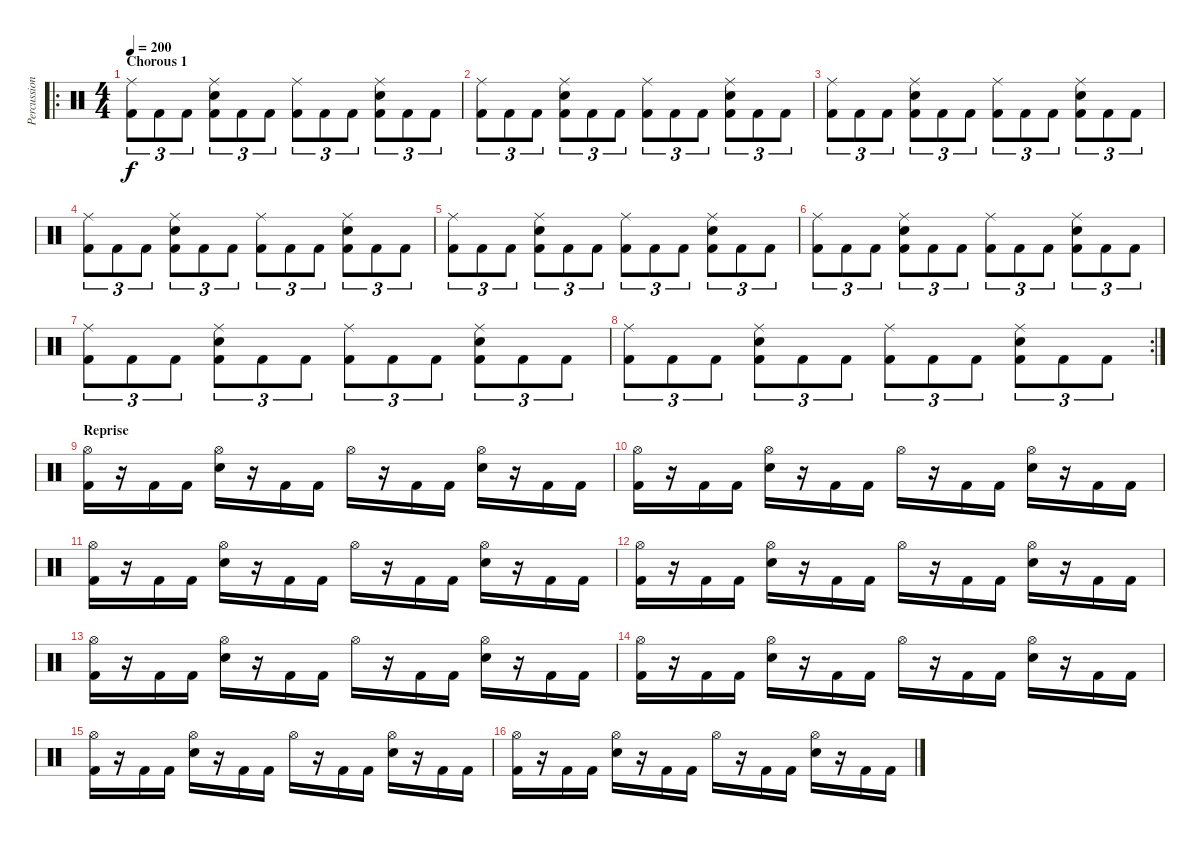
\track ("Percussion" "Percussion") {instrument percussion}
\staff {score}
\articulation defaults
\ro
\ts (4 4)
\section ("" "Chorous 1")
\tempo 200
\clef neutral
\ks c
("Ride (middle)" "Kick (hit) 2").8{tu (3 2) dy f} "Kick (hit) 2".8{tu (3 2)} "Kick (hit) 2".8{tu (3 2)} ("Ride (middle)" "Electric Snare (hit)" "Kick (hit) 2").8{tu (3 2)} "Kick (hit) 2".8{tu (3 2)} "Kick (hit) 2".8{tu (3 2)} ("Ride (middle)" "Kick (hit) 2").8{tu (3 2)} "Kick (hit) 2".8{tu (3 2)} "Kick (hit) 2".8{tu (3 2)} ("Ride (middle)" "Electric Snare (hit)" "Kick (hit) 2").8{tu (3 2)} "Kick (hit) 2".8{tu (3 2)} "Kick (hit) 2".8{tu (3 2)} |
("Ride (middle)" "Kick (hit) 2").8{tu (3 2)} "Kick (hit) 2".8{tu (3 2)} "Kick (hit) 2".8{tu (3 2)} ("Ride (middle)" "Electric Snare (hit)" "Kick (hit) 2").8{tu (3 2)} "Kick (hit) 2".8{tu (3 2)} "Kick (hit) 2".8{tu (3 2)} ("Ride (middle)" "Kick (hit) 2").8{tu (3 2)} "Kick (hit) 2".8{tu (3 2)} "Kick (hit) 2".8{tu (3 2)} ("Ride (middle)" "Electric Snare (hit)" "Kick (hit) 2").8{tu (3 2)} "Kick (hit) 2".8{tu (3 2)} "Kick (hit) 2".8{tu (3 2)} |
("Ride (middle)" "Kick (hit) 2").8{tu (3 2)} "Kick (hit) 2".8{tu (3 2)} "Kick (hit) 2".8{tu (3 2)} ("Ride (middle)" "Electric Snare (hit)" "Kick (hit) 2").8{tu (3 2)} "Kick (hit) 2".8{tu (3 2)} "Kick (hit) 2".8{tu (3 2)} ("Ride (middle)" "Kick (hit) 2").8{tu (3 2)} "Kick (hit) 2".8{tu (3 2)} "Kick (hit) 2".8{tu (3 2)} ("Ride (middle)" "Electric Snare (hit)" "Kick (hit) 2").8{tu (3 2)} "Kick (hit) 2".8{tu (3 2)} "Kick (hit) 2".8{tu (3 2)} |
("Ride (middle)" "Kick (hit) 2").8{tu (3 2)} "Kick (hit) 2".8{tu (3 2)} "Kick (hit) 2".8{tu (3 2)} ("Ride (middle)" "Electric Snare (hit)" "Kick (hit) 2").8{tu (3 2)} "Kick (hit) 2".8{tu (3 2)} "Kick (hit) 2".8{tu (3 2)} ("Ride (middle)" "Kick (hit) 2").8{tu (3 2)} "Kick (hit) 2".8{tu (3 2)} "Kick (hit) 2".8{tu (3 2)} ("Ride (middle)" "Electric Snare (hit)" "Kick (hit) 2").8{tu (3 2)} "Kick (hit) 2".8{tu (3 2)} "Kick (hit) 2".8{tu (3 2)} |
("Ride (middle)" "Kick (hit) 2").8{tu (3 2)} "Kick (hit) 2".8{tu (3 2)} "Kick (hit) 2".8{tu (3 2)} ("Ride (middle)" "Electric Snare (hit)" "Kick (hit) 2").8{tu (3 2)} "Kick (hit) 2".8{tu (3 2)} "Kick (hit) 2".8{tu (3 2)} ("Ride (middle)" "Kick (hit) 2").8{tu (3 2)} "Kick (hit) 2".8{tu (3 2)} "Kick (hit) 2".8{tu (3 2)} ("Ride (middle)" "Electric Snare (hit)" "Kick (hit) 2").8{tu (3 2)} "Kick (hit) 2".8{tu (3 2)} "Kick (hit) 2".8{tu (3 2)} |
("Ride (middle)" "Kick (hit) 2").8{tu (3 2)} "Kick (hit) 2".8{tu (3 2)} "Kick (hit) 2".8{tu (3 2)} ("Ride (middle)" "Electric Snare (hit)" "Kick (hit) 2").8{tu (3 2)} "Kick (hit) 2".8{tu (3 2)} "Kick (hit) 2".8{tu (3 2)} ("Ride (middle)" "Kick (hit) 2").8{tu (3 2)} "Kick (hit) 2".8{tu (3 2)} "Kick (hit) 2".8{tu (3 2)} ("Ride (middle)" "Electric Snare (hit)" "Kick (hit) 2").8{tu (3 2)} "Kick (hit) 2".8{tu (3 2)} "Kick (hit) 2".8{tu (3 2)} |
("Ride (middle)" "Kick (hit) 2").8{tu (3 2)} "Kick (hit) 2".8{tu (3 2)} "Kick (hit) 2".8{tu (3 2)} ("Ride (middle)" "Electric Snare (hit)" "Kick (hit) 2").8{tu (3 2)} "Kick (hit) 2".8{tu (3 2)} "Kick (hit) 2".8{tu (3 2)} ("Ride (middle)" "Kick (hit) 2").8{tu (3 2)} "Kick (hit) 2".8{tu (3 2)} "Kick (hit) 2".8{tu (3 2)} ("Ride (middle)" "Electric Snare (hit)" "Kick (hit) 2").8{tu (3 2)} "Kick (hit) 2".8{tu (3 2)} "Kick (hit) 2".8{tu (3 2)} |
\rc 2
("Ride (middle)" "Kick (hit) 2").8{tu (3 2)} "Kick (hit) 2".8{tu (3 2)} "Kick (hit) 2".8{tu (3 2)} ("Ride (middle)" "Electric Snare (hit)" "Kick (hit) 2").8{tu (3 2)} "Kick (hit) 2".8{tu (3 2)} "Kick (hit) 2".8{tu (3 2)} ("Ride (middle)" "Kick (hit) 2").8{tu (3 2)} "Kick (hit) 2".8{tu (3 2)} "Kick (hit) 2".8{tu (3 2)} ("Ride (middle)" "Electric Snare (hit)" "Kick (hit) 2").8{tu (3 2)} "Kick (hit) 2".8{tu (3 2)} "Kick (hit) 2".8{tu (3 2)} |
\section ("" "Reprise")
("Hi-Hat (open)" "Kick (hit) 2").16 r.16 "Kick (hit) 2".16 "Kick (hit) 2".16 ("Hi-Hat (open)" "Electric Snare (hit)").16 r.16 "Kick (hit) 2".16 "Kick (hit) 2".16 "Hi-Hat (open)".16 r.16 "Kick (hit) 2".16 "Kick (hit) 2".16 ("Hi-Hat (open)" "Electric Snare (hit)").16 r.16 "Kick (hit) 2".16 "Kick (hit) 2".16 |
("Hi-Hat (open)" "Kick (hit) 2").16 r.16 "Kick (hit) 2".16 "Kick (hit) 2".16 ("Hi-Hat (open)" "Electric Snare (hit)").16 r.16 "Kick (hit) 2".16 "Kick (hit) 2".16 "Hi-Hat (open)".16 r.16 "Kick (hit) 2".16 "Kick (hit) 2".16 ("Hi-Hat (open)" "Electric Snare (hit)").16 r.16 "Kick (hit) 2".16 "Kick (hit) 2".16 |
("Hi-Hat (open)" "Kick (hit) 2").16 r.16 "Kick (hit) 2".16 "Kick (hit) 2".16 ("Hi-Hat (open)" "Electric Snare (hit)").16 r.16 "Kick (hit) 2".16 "Kick (hit) 2".16 "Hi-Hat (open)".16 r.16 "Kick (hit) 2".16 "Kick (hit) 2".16 ("Hi-Hat (open)" "Electric Snare (hit)").16 r.16 "Kick (hit) 2".16 "Kick (hit) 2".16 |
("Hi-Hat (open)" "Kick (hit) 2").16 r.16 "Kick (hit) 2".16 "Kick (hit) 2".16 ("Hi-Hat (open)" "Electric Snare (hit)").16 r.16 "Kick (hit) 2".16 "Kick (hit) 2".16 "Hi-Hat (open)".16 r.16 "Kick (hit) 2".16 "Kick (hit) 2".16 ("Hi-Hat (open)" "Electric Snare (hit)").16 r.16 "Kick (hit) 2".16 "Kick (hit) 2".16 |
("Hi-Hat (open)" "Kick (hit) 2").16 r.16 "Kick (hit) 2".16 "Kick (hit) 2".16 ("Hi-Hat (open)" "Electric Snare (hit)").16 r.16 "Kick (hit) 2".16 "Kick (hit) 2".16 "Hi-Hat (open)".16 r.16 "Kick (hit) 2".16 "Kick (hit) 2".16 ("Hi-Hat (open)" "Electric Snare (hit)").16 r.16 "Kick (hit) 2".16 "Kick (hit) 2".16 |
("Hi-Hat (open)" "Kick (hit) 2").16 r.16 "Kick (hit) 2".16 "Kick (hit) 2".16 ("Hi-Hat (open)" "Electric Snare (hit)").16 r.16 "Kick (hit) 2".16 "Kick (hit) 2".16 "Hi-Hat (open)".16 r.16 "Kick (hit) 2".16 "Kick (hit) 2".16 ("Hi-Hat (open)" "Electric Snare (hit)").16 r.16 "Kick (hit) 2".16 "Kick (hit) 2".16 |
("Hi-Hat (open)" "Kick (hit) 2").16 r.16 "Kick (hit) 2".16 "Kick (hit) 2".16 ("Hi-Hat (open)" "Electric Snare (hit)").16 r.16 "Kick (hit) 2".16 "Kick (hit) 2".16 "Hi-Hat (open)".16 r.16 "Kick (hit) 2".16 "Kick (hit) 2".16 ("Hi-Hat (open)" "Electric Snare (hit)").16 r.16 "Kick (hit) 2".16 "Kick (hit) 2".16 |
("Hi-Hat (open)" "Kick (hit) 2").16 r.16 "Kick (hit) 2".16 "Kick (hit) 2".16 ("Hi-Hat (open)" "Electric Snare (hit)").16 r.16 "Kick (hit) 2".16 "Kick (hit) 2".16 "Hi-Hat (open)".16 r.16 "Kick (hit) 2".16 "Kick (hit) 2".16 ("Hi-Hat (open)" "Electric Snare (hit)").16 r.16 "Kick (hit) 2".16 "Kick (hit) 2".16
